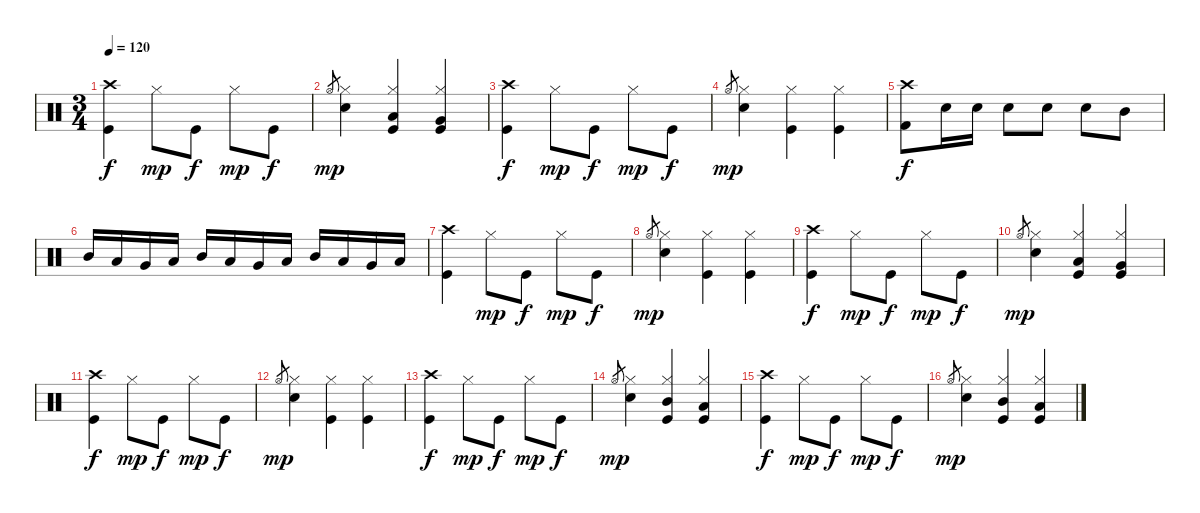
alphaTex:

\track "" {instrument percussion}
\staff {score}
\articulation defaults
\ts (3 4)
\tempo 120
\clef neutral
\ks c
("Crash high (hit)" "Kick (hit)").4{dy f} "Hi-Hat (closed)".8{dy mp} "Kick (hit)".8{dy f} "Hi-Hat (closed)".8{dy mp} "Kick (hit)".8{dy f} |
"Hi-Hat (open)".8{gr dy mp} ("Hi-Hat (closed)" "Electric Snare (hit)").4 ("Hi-Hat (closed)" "Low Tom (hit)" "Kick (hit)").4 ("Hi-Hat (closed)" "Very Low Tom (hit)" "Kick (hit)").4 |
("Crash high (hit)" "Kick (hit)").4{dy f} "Hi-Hat (closed)".8{dy mp} "Kick (hit)".8{dy f} "Hi-Hat (closed)".8{dy mp} "Kick (hit)".8{dy f} |
"Hi-Hat (open)".8{gr dy mp} ("Hi-Hat (closed)" "Electric Snare (hit)").4 ("Hi-Hat (closed)" "Kick (hit)").4 ("Hi-Hat (closed)" "Kick (hit)").4 |
("Crash high (hit)" "Kick (hit) 2").8{dy f} "Electric Snare (hit)".16 "Electric Snare (hit)".16 "Electric Snare (hit)".8 "Electric Snare (hit)".8 "Electric Snare (hit)".8 "Mid Tom (hit)".8 |
"Mid Tom (hit)".16 "Low Tom (hit)".16 "Very Low Tom (hit)".16 "Low Floor Tom (hit)".16 "Mid Tom (hit)".16 "Low Tom (hit)".16 "Very Low Tom (hit)".16 "Low Floor Tom (hit)".16 "Mid Tom (hit)".16 "Low Tom (hit)".16 "Very Low Tom (hit)".16 "Low Floor Tom (hit)".16 |
("Crash high (hit)" "Kick (hit)").4 "Hi-Hat (closed)".8{dy mp} "Kick (hit)".8{dy f} "Hi-Hat (closed)".8{dy mp} "Kick (hit)".8{dy f} |
"Hi-Hat (open)".8{gr dy mp} ("Hi-Hat (closed)" "Electric Snare (hit)").4 ("Hi-Hat (closed)" "Kick (hit)").4 ("Hi-Hat (closed)" "Kick (hit)").4 |
("Crash high (hit)" "Kick (hit)").4{dy f} "Hi-Hat (closed)".8{dy mp} "Kick (hit)".8{dy f} "Hi-Hat (closed)".8{dy mp} "Kick (hit)".8{dy f} |
"Hi-Hat (open)".8{gr dy mp} ("Hi-Hat (closed)" "Electric Snare (hit)").4 ("Hi-Hat (closed)" "Low Tom (hit)" "Kick (hit)").4 ("Hi-Hat (closed)" "Very Low Tom (hit)" "Kick (hit)").4 |
("Crash high (hit)" "Kick (hit)").4{dy f} "Hi-Hat (closed)".8{dy mp} "Kick (hit)".8{dy f} "Hi-Hat (closed)".8{dy mp} "Kick (hit)".8{dy f} |
"Hi-Hat (open)".8{gr dy mp} ("Hi-Hat (closed)" "Electric Snare (hit)").4 ("Hi-Hat (closed)" "Kick (hit)").4 ("Hi-Hat (closed)" "Kick (hit)").4 |
("Crash high (hit)" "Kick (hit)").4{dy f} "Hi-Hat (closed)".8{dy mp} "Kick (hit)".8{dy f} "Hi-Hat (closed)".8{dy mp} "Kick (hit)".8{dy f} |
"Hi-Hat (open)".8{gr dy mp} ("Hi-Hat (closed)" "Electric Snare (hit)").4 ("Hi-Hat (closed)" "Mid Tom (hit)" "Kick (hit)").4 ("Hi-Hat (closed)" "Low Tom (hit)" "Kick (hit)").4 |
("Crash high (hit)" "Kick (hit)").4{dy f} "Hi-Hat (closed)".8{dy mp} "Kick (hit)".8{dy f} "Hi-Hat (closed)".8{dy mp} "Kick (hit)".8{dy f} |
"Hi-Hat (open)".8{gr dy mp} ("Hi-Hat (closed)" "Electric Snare (hit)").4 ("Hi-Hat (closed)" "Mid Tom (hit)" "Kick (hit)").4 ("Hi-Hat (closed)" "Low Tom (hit)" "Kick (hit)").4
